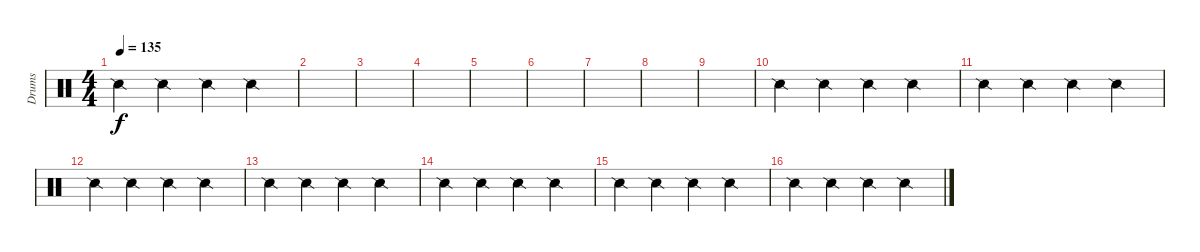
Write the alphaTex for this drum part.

\track ("Drums" "Drums") {instrument percussion}
\staff {score}
\articulation defaults
\ts (4 4)
\tempo 135
\clef neutral
\ks c "Snare (side stick) 2".4{dy f} "Snare (side stick) 2".4 "Snare (side stick) 2".4 "Snare (side stick) 2".4
|
|
|
|
|
|
|
|
|
"Snare (side stick) 2".4 "Snare (side stick) 2".4 "Snare (side stick) 2".4 "Snare (side stick) 2".4 |
"Snare (side stick) 2".4 "Snare (side stick) 2".4 "Snare (side stick) 2".4 "Snare (side stick) 2".4 |
"Snare (side stick) 2".4 "Snare (side stick) 2".4 "Snare (side stick) 2".4 "Snare (side stick) 2".4 |
"Snare (side stick) 2".4 "Snare (side stick) 2".4 "Snare (side stick) 2".4 "Snare (side stick) 2".4 |
"Snare (side stick) 2".4 "Snare (side stick) 2".4 "Snare (side stick) 2".4 "Snare (side stick) 2".4 |
"Snare (side stick) 2".4 "Snare (side stick) 2".4 "Snare (side stick) 2".4 "Snare (side stick) 2".4 |
"Snare (side stick) 2".4 "Snare (side stick) 2".4 "Snare (side stick) 2".4 "Snare (side stick) 2".4
